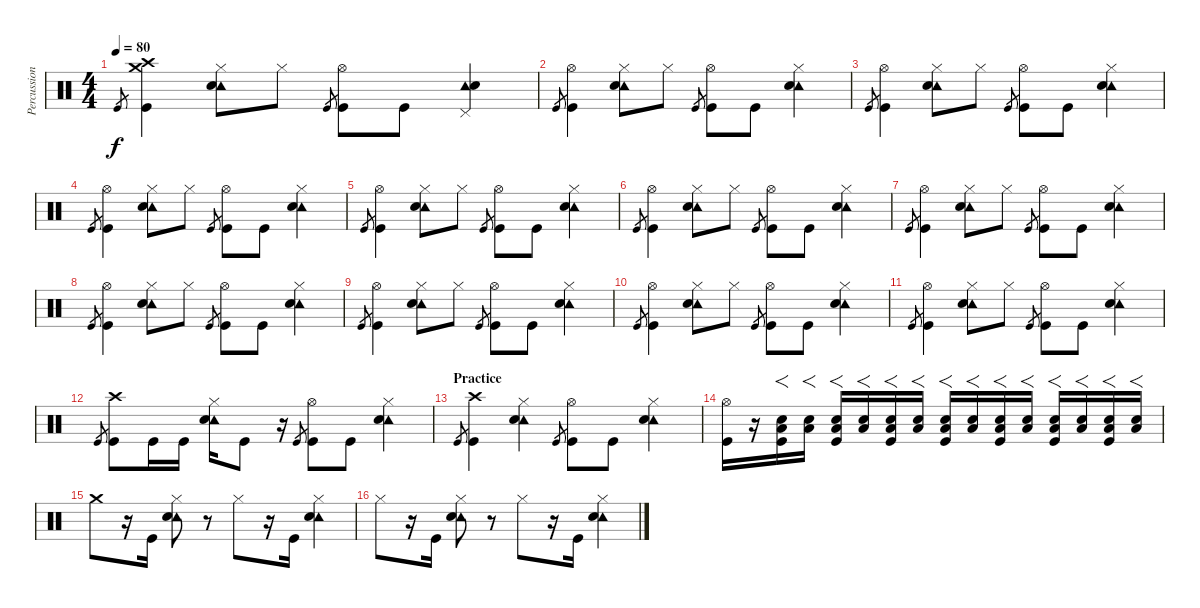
\track ("Percussion" "Percussion") {instrument percussion}
\staff {score}
\articulation defaults
\ts (4 4)
\tempo 80
\clef neutral
\ks c "Kick (hit)".8{gr dy f}
("Crash high (hit)" "Crash medium (hit)" "Kick (hit)").4 ("Hi-Hat (closed)" "Tambourine (hit)" "Electric Snare (hit)").8 "Hi-Hat (closed)".8 "Kick (hit)".8{gr} ("Hi-Hat (open)" "Kick (hit)").8 "Kick (hit)".8 ("Pedal Hi-Hat (hit)" "Tambourine (hit)" "Electric Snare (hit)").4 |
"Kick (hit)".8{gr} ("Hi-Hat (open)" "Kick (hit)").4 ("Hi-Hat (closed)" "Tambourine (hit)" "Electric Snare (hit)").8 "Hi-Hat (closed)".8 "Kick (hit)".8{gr} ("Hi-Hat (open)" "Kick (hit)").8 "Kick (hit)".8 ("Hi-Hat (closed)" "Tambourine (hit)" "Electric Snare (hit)").4 |
"Kick (hit)".8{gr} ("Hi-Hat (open)" "Kick (hit)").4 ("Hi-Hat (closed)" "Tambourine (hit)" "Electric Snare (hit)").8 "Hi-Hat (closed)".8 "Kick (hit)".8{gr} ("Hi-Hat (open)" "Kick (hit)").8 "Kick (hit)".8 ("Hi-Hat (closed)" "Tambourine (hit)" "Electric Snare (hit)").4 |
"Kick (hit)".8{gr} ("Hi-Hat (open)" "Kick (hit)").4 ("Hi-Hat (closed)" "Tambourine (hit)" "Electric Snare (hit)").8 "Hi-Hat (closed)".8 "Kick (hit)".8{gr} ("Hi-Hat (open)" "Kick (hit)").8 "Kick (hit)".8 ("Hi-Hat (closed)" "Tambourine (hit)" "Electric Snare (hit)").4 |
"Kick (hit)".8{gr} ("Hi-Hat (open)" "Kick (hit)").4 ("Hi-Hat (closed)" "Tambourine (hit)" "Electric Snare (hit)").8 "Hi-Hat (closed)".8 "Kick (hit)".8{gr} ("Hi-Hat (open)" "Kick (hit)").8 "Kick (hit)".8 ("Hi-Hat (closed)" "Tambourine (hit)" "Electric Snare (hit)").4 |
"Kick (hit)".8{gr} ("Hi-Hat (open)" "Kick (hit)").4 ("Hi-Hat (closed)" "Tambourine (hit)" "Electric Snare (hit)").8 "Hi-Hat (closed)".8 "Kick (hit)".8{gr} ("Hi-Hat (open)" "Kick (hit)").8 "Kick (hit)".8 ("Hi-Hat (closed)" "Tambourine (hit)" "Electric Snare (hit)").4 |
"Kick (hit)".8{gr} ("Hi-Hat (open)" "Kick (hit)").4 ("Hi-Hat (closed)" "Tambourine (hit)" "Electric Snare (hit)").8 "Hi-Hat (closed)".8 "Kick (hit)".8{gr} ("Hi-Hat (open)" "Kick (hit)").8 "Kick (hit)".8 ("Hi-Hat (closed)" "Tambourine (hit)" "Electric Snare (hit)").4 |
"Kick (hit)".8{gr} ("Hi-Hat (open)" "Kick (hit)").4 ("Hi-Hat (closed)" "Tambourine (hit)" "Electric Snare (hit)").8 "Hi-Hat (closed)".8 "Kick (hit)".8{gr} ("Hi-Hat (open)" "Kick (hit)").8 "Kick (hit)".8 ("Hi-Hat (closed)" "Tambourine (hit)" "Electric Snare (hit)").4 |
"Kick (hit)".8{gr} ("Hi-Hat (open)" "Kick (hit)").4 ("Hi-Hat (closed)" "Tambourine (hit)" "Electric Snare (hit)").8 "Hi-Hat (closed)".8 "Kick (hit)".8{gr} ("Hi-Hat (open)" "Kick (hit)").8 "Kick (hit)".8 ("Hi-Hat (closed)" "Tambourine (hit)" "Electric Snare (hit)").4 |
"Kick (hit)".8{gr} ("Hi-Hat (open)" "Kick (hit)").4 ("Hi-Hat (closed)" "Tambourine (hit)" "Electric Snare (hit)").8 "Hi-Hat (closed)".8 "Kick (hit)".8{gr} ("Hi-Hat (open)" "Kick (hit)").8 "Kick (hit)".8 ("Hi-Hat (closed)" "Tambourine (hit)" "Electric Snare (hit)").4 |
"Kick (hit)".8{gr} ("Hi-Hat (open)" "Kick (hit)").4 ("Hi-Hat (closed)" "Tambourine (hit)" "Electric Snare (hit)").8 "Hi-Hat (closed)".8 "Kick (hit)".8{gr} ("Hi-Hat (open)" "Kick (hit)").8 "Kick (hit)".8 ("Hi-Hat (closed)" "Tambourine (hit)" "Electric Snare (hit)").4 |
"Kick (hit)".8{gr} ("Crash high (hit)" "Kick (hit)").8 "Kick (hit)".16 "Kick (hit)".16 ("Hi-Hat (closed)" "Tambourine (hit)" "Electric Snare (hit)").16 "Kick (hit)".8 r.16 "Kick (hit)".8{gr} ("Hi-Hat (open)" "Kick (hit)").8 "Kick (hit)".8 ("Hi-Hat (closed)" "Tambourine (hit)" "Electric Snare (hit)").4 |
\section ("" "Practice")
"Kick (hit)".8{gr} ("Crash high (hit)" "Kick (hit)").4 ("Hi-Hat (closed)" "Tambourine (hit)" "Electric Snare (hit)").4 "Kick (hit)".8{gr} ("Hi-Hat (open)" "Kick (hit)").8 "Kick (hit)".8 ("Hi-Hat (closed)" "Tambourine (hit)" "Electric Snare (hit)").4 |
("Hi-Hat (open)" "Kick (hit)").16 r.16 ("Low Floor Tom (hit)" "Electric Snare (hit)" "Kick (hit)").16{f} ("Low Floor Tom (hit)" "Electric Snare (hit)").16{f} ("Low Floor Tom (hit)" "Electric Snare (hit)" "Kick (hit)").16{f} ("Low Floor Tom (hit)" "Electric Snare (hit)").16{f} ("Low Floor Tom (hit)" "Electric Snare (hit)" "Kick (hit)").16{f} ("Low Floor Tom (hit)" "Electric Snare (hit)").16{f} ("Low Floor Tom (hit)" "Electric Snare (hit)" "Kick (hit)").16{f} ("Low Floor Tom (hit)" "Electric Snare (hit)").16{f} ("Low Floor Tom (hit)" "Electric Snare (hit)" "Kick (hit)").16{f} ("Low Floor Tom (hit)" "Electric Snare (hit)").16{f} ("Low Floor Tom (hit)" "Electric Snare (hit)" "Kick (hit)").16{f} ("Low Floor Tom (hit)" "Electric Snare (hit)").16{f} ("Low Floor Tom (hit)" "Electric Snare (hit)" "Kick (hit)").16{f} ("Low Floor Tom (hit)" "Electric Snare (hit)").16{f} |
"Crash medium (hit)".8 r.16 "Kick (hit)".16 ("Hi-Hat (closed)" "Tambourine (hit)" "Electric Snare (hit)").8 r.8 "Hi-Hat (closed)".8 r.16 "Kick (hit)".16 ("Hi-Hat (closed)" "Tambourine (hit)" "Electric Snare (hit)").4 |
"Hi-Hat (closed)".8 r.16 "Kick (hit)".16 ("Hi-Hat (closed)" "Tambourine (hit)" "Electric Snare (hit)").8 r.8 "Hi-Hat (closed)".8 r.16 "Kick (hit)".16 ("Hi-Hat (closed)" "Tambourine (hit)" "Electric Snare (hit)").4
